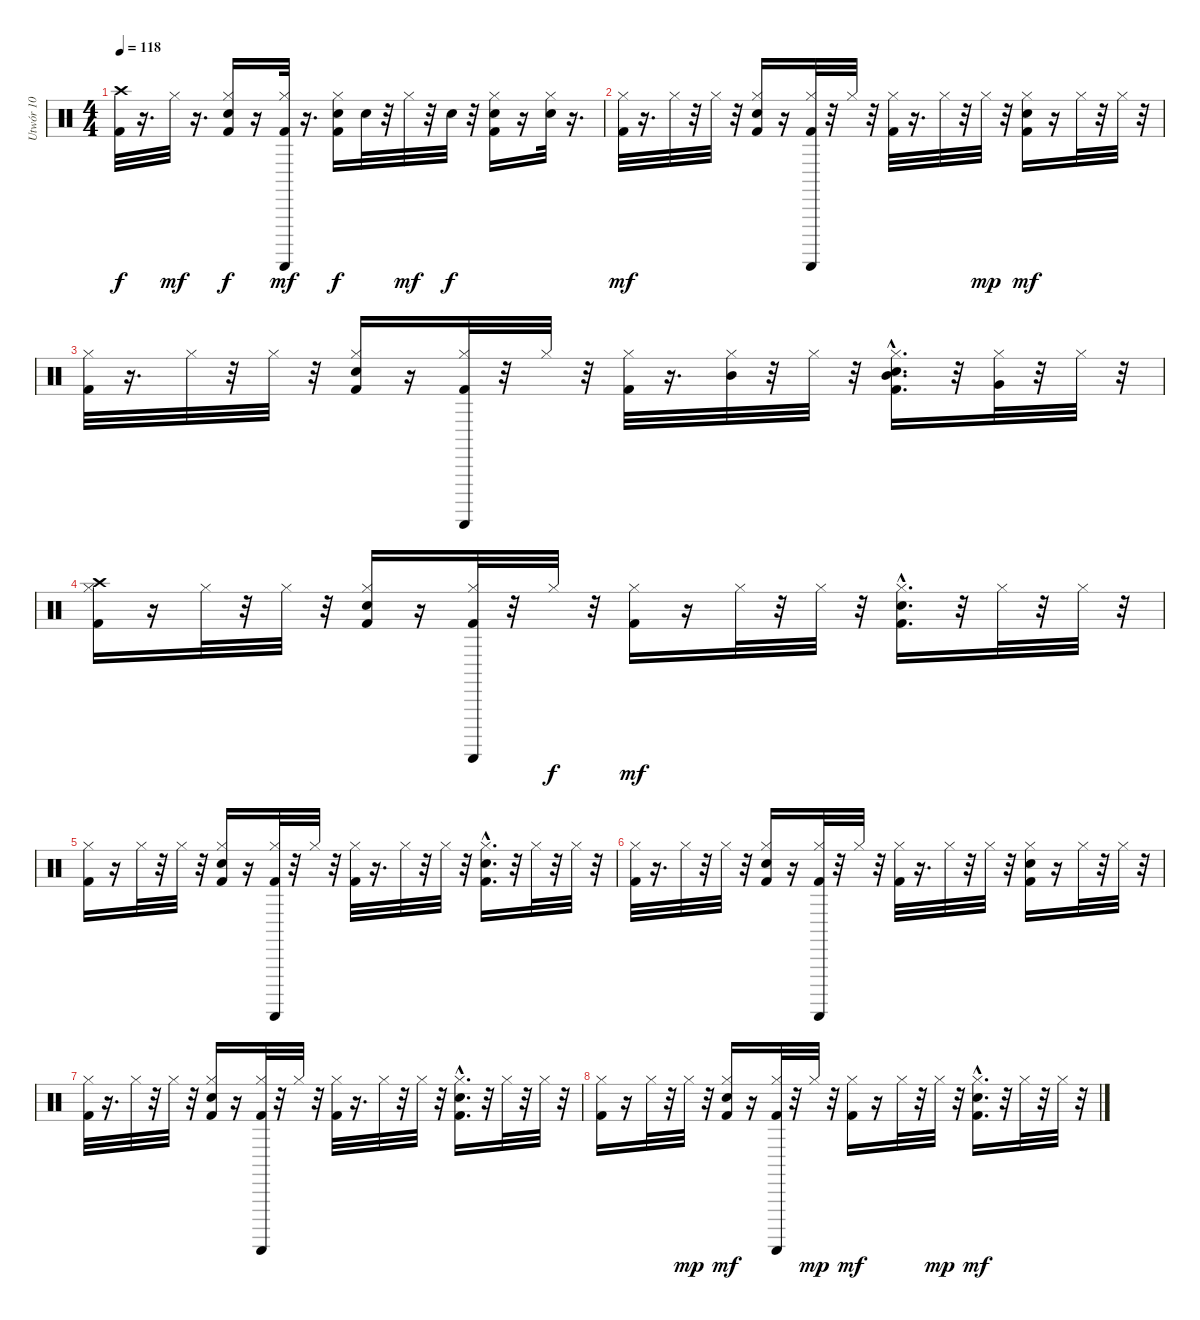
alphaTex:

\track ("Utwór 10" "Utwór 10") {instrument percussion}
\staff {score}
\articulation defaults
\ts (4 4)
\tempo 118
\clef neutral
\ks c
("Kick (hit) 2" "Crash high (hit)").32{dy f} r.16{d} "Hi-Hat (closed)".32{dy mf} r.16{d} ("Kick (hit) 2" "Snare (hit) 2" "Hi-Hat (closed)").16{dy f} r.16 ("Kick (hit) 2" "Hi-Hat (closed)" "Guiro (scrap-return)").32{dy mf} r.16{d} ("Kick (hit) 2" "Snare (hit) 2" "Hi-Hat (closed)").16{dy f} "Snare (hit) 2".32 r.32 "Hi-Hat (closed)".32{dy mf} r.32 "Snare (hit) 2".32{dy f} r.32 ("Kick (hit) 2" "Snare (hit) 2" "Hi-Hat (closed)").16 r.16 ("Snare (hit) 2" "Hi-Hat (closed)").32 r.16{d} |
("Kick (hit) 2" "Hi-Hat (closed)").32{dy mf} r.16{d} "Hi-Hat (closed)".32 r.32 "Hi-Hat (closed)".32 r.32 ("Kick (hit) 2" "Snare (hit) 2" "Hi-Hat (closed)").16 r.16 ("Kick (hit) 2" "Hi-Hat (closed)" "Guiro (scrap-return)").32 r.32 "Hi-Hat (closed)".32 r.32 ("Kick (hit) 2" "Hi-Hat (closed)").32 r.16{d} "Hi-Hat (closed)".32 r.32 "Hi-Hat (closed)".32{dy mp} r.32 ("Kick (hit) 2" "Snare (hit) 2" "Hi-Hat (closed)").16{dy mf} r.16 "Hi-Hat (closed)".32 r.32 "Hi-Hat (closed)".32 r.32 |
("Kick (hit) 2" "Hi-Hat (closed)").32 r.16{d} "Hi-Hat (closed)".32 r.32 "Hi-Hat (closed)".32 r.32 ("Kick (hit) 2" "Snare (hit) 2" "Hi-Hat (closed)").16 r.16 ("Kick (hit) 2" "Hi-Hat (closed)" "Guiro (scrap-return)").32 r.32 "Hi-Hat (closed)".32 r.32 ("Kick (hit) 2" "Hi-Hat (closed)").32 r.16{d} ("Hi-Hat (closed)" "Mid Tom (hit)").32 r.32 "Hi-Hat (closed)".32 r.32 ("Kick (hit) 2" "Snare (hit) 2"{hac} "Hi-Hat (closed)" "Mid Tom (hit)").16{d} r.32 ("Hi-Hat (closed)" "Very Low Tom (hit)").32 r.32 "Hi-Hat (closed)".32 r.32 |
("Kick (hit) 2" "Hi-Hat (closed)" "Crash high (hit)").16 r.16 "Hi-Hat (closed)".32 r.32 "Hi-Hat (closed)".32 r.32 ("Kick (hit) 2" "Snare (hit) 2" "Hi-Hat (closed)").16 r.16 ("Kick (hit) 2" "Hi-Hat (closed)" "Guiro (scrap-return)").32 r.32 "Hi-Hat (closed)".32{dy f} r.32 ("Kick (hit) 2" "Hi-Hat (closed)").16{dy mf} r.16 "Hi-Hat (closed)".32 r.32 "Hi-Hat (closed)".32 r.32 ("Kick (hit) 2" "Snare (hit) 2"{hac} "Hi-Hat (closed)").16{d} r.32 "Hi-Hat (closed)".32 r.32 "Hi-Hat (closed)".32 r.32 |
("Kick (hit) 2" "Hi-Hat (closed)").16 r.16 "Hi-Hat (closed)".32 r.32 "Hi-Hat (closed)".32 r.32 ("Kick (hit) 2" "Snare (hit) 2" "Hi-Hat (closed)").16 r.16 ("Kick (hit) 2" "Hi-Hat (closed)" "Guiro (scrap-return)").32 r.32 "Hi-Hat (closed)".32 r.32 ("Kick (hit) 2" "Hi-Hat (closed)").32 r.16{d} "Hi-Hat (closed)".32 r.32 "Hi-Hat (closed)".32 r.32 ("Kick (hit) 2" "Snare (hit) 2"{hac} "Hi-Hat (closed)").16{d} r.32 "Hi-Hat (closed)".32 r.32 "Hi-Hat (closed)".32 r.32 |
("Kick (hit) 2" "Hi-Hat (closed)").32 r.16{d} "Hi-Hat (closed)".32 r.32 "Hi-Hat (closed)".32 r.32 ("Kick (hit) 2" "Snare (hit) 2" "Hi-Hat (closed)").16 r.16 ("Kick (hit) 2" "Hi-Hat (closed)" "Guiro (scrap-return)").32 r.32 "Hi-Hat (closed)".32 r.32 ("Kick (hit) 2" "Hi-Hat (closed)").32 r.16{d} "Hi-Hat (closed)".32 r.32 "Hi-Hat (closed)".32 r.32 ("Kick (hit) 2" "Snare (hit) 2" "Hi-Hat (closed)").16 r.16 "Hi-Hat (closed)".32 r.32 "Hi-Hat (closed)".32 r.32 |
("Kick (hit) 2" "Hi-Hat (closed)").32 r.16{d} "Hi-Hat (closed)".32 r.32 "Hi-Hat (closed)".32 r.32 ("Kick (hit) 2" "Snare (hit) 2" "Hi-Hat (closed)").16 r.16 ("Kick (hit) 2" "Hi-Hat (closed)" "Guiro (scrap-return)").32 r.32 "Hi-Hat (closed)".32 r.32 ("Kick (hit) 2" "Hi-Hat (closed)").32 r.16{d} "Hi-Hat (closed)".32 r.32 "Hi-Hat (closed)".32 r.32 ("Kick (hit) 2" "Snare (hit) 2"{hac} "Hi-Hat (closed)").16{d} r.32 "Hi-Hat (closed)".32 r.32 "Hi-Hat (closed)".32 r.32 |
("Kick (hit) 2" "Hi-Hat (closed)").16 r.16 "Hi-Hat (closed)".32 r.32 "Hi-Hat (closed)".32{dy mp} r.32 ("Kick (hit) 2" "Snare (hit) 2" "Hi-Hat (closed)").16{dy mf} r.16 ("Kick (hit) 2" "Hi-Hat (closed)" "Guiro (scrap-return)").32 r.32 "Hi-Hat (closed)".32{dy mp} r.32 ("Kick (hit) 2" "Hi-Hat (closed)").16{dy mf} r.16 "Hi-Hat (closed)".32 r.32 "Hi-Hat (closed)".32{dy mp} r.32 ("Kick (hit) 2" "Snare (hit) 2"{hac} "Hi-Hat (closed)").16{d dy mf} r.32 "Hi-Hat (closed)".32 r.32 "Hi-Hat (closed)".32 r.32
